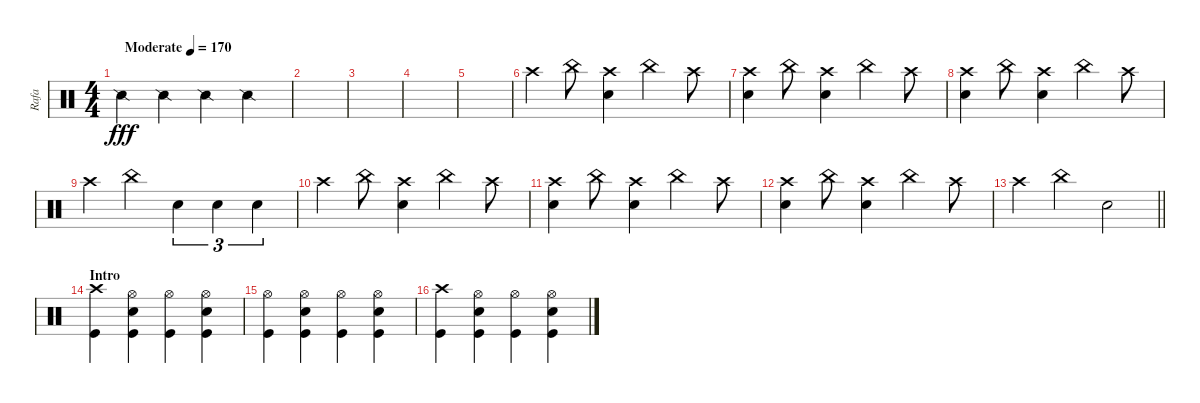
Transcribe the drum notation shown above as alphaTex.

\track ("Rafa" "Rafa") {instrument percussion}
\staff {score}
\articulation defaults
\ts (4 4)
\tempo (170 "Moderate")
\clef neutral
\ks c "Snare (side stick) 2".4{dy fff} "Snare (side stick) 2".4 "Snare (side stick) 2".4 "Snare (side stick) 2".4
|
|
|
|
|
"Crash high (hit)".4 "China (hit)".8 ("Crash high (hit)" "Electric Snare (hit)").4 "China (hit)".4 "Crash high (hit)".8 |
("Crash high (hit)" "Electric Snare (hit)").4 "China (hit)".8 ("Crash high (hit)" "Electric Snare (hit)").4 "China (hit)".4 "Crash high (hit)".8 |
("Crash high (hit)" "Electric Snare (hit)").4 "China (hit)".8 ("Crash high (hit)" "Electric Snare (hit)").4 "China (hit)".4 "Crash high (hit)".8 |
"Crash high (hit)".4 "China (hit)".4 "Electric Snare (hit)".4{tu (3 2)} "Electric Snare (hit)".4{tu (3 2)} "Electric Snare (hit)".4{tu (3 2)} |
"Crash high (hit)".4 "China (hit)".8 ("Crash high (hit)" "Electric Snare (hit)").4 "China (hit)".4 "Crash high (hit)".8 |
("Crash high (hit)" "Electric Snare (hit)").4 "China (hit)".8 ("Crash high (hit)" "Electric Snare (hit)").4 "China (hit)".4 "Crash high (hit)".8 |
("Crash high (hit)" "Electric Snare (hit)").4 "China (hit)".8 ("Crash high (hit)" "Electric Snare (hit)").4 "China (hit)".4 "Crash high (hit)".8 |
\barLineRight lightlight "Crash high (hit)".4 "China (hit)".4 "Electric Snare (hit)".2
|
\section ("" "Intro")
("Crash high (hit)" "Kick (hit)").4{volume 16} ("Hi-Hat (open)" "Electric Snare (hit)" "Kick (hit)").4 ("Hi-Hat (open)" "Kick (hit)").4 ("Hi-Hat (open)" "Electric Snare (hit)" "Kick (hit)").4 |
("Hi-Hat (open)" "Kick (hit)").4 ("Hi-Hat (open)" "Electric Snare (hit)" "Kick (hit)").4 ("Hi-Hat (open)" "Kick (hit)").4 ("Hi-Hat (open)" "Electric Snare (hit)" "Kick (hit)").4 |
("Crash high (hit)" "Kick (hit)").4{volume 16} ("Hi-Hat (open)" "Electric Snare (hit)" "Kick (hit)").4 ("Hi-Hat (open)" "Kick (hit)").4 ("Hi-Hat (open)" "Electric Snare (hit)" "Kick (hit)").4
